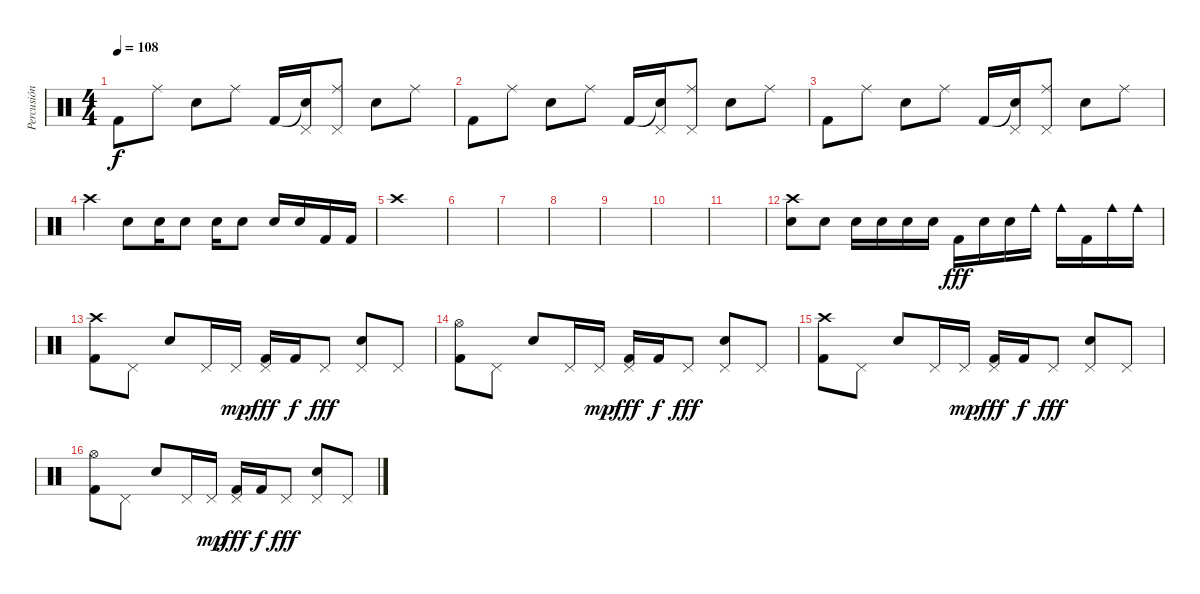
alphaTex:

\track ("Percusión" "Percusión") {instrument percussion}
\staff {score}
\articulation defaults
\ts (4 4)
\tempo 108
\clef neutral
\ks c "Kick (hit) 2".8{dy f} "Ride (middle)".8 "Snare (hit) 2".8 "Ride (middle)".8 "Kick (hit) 2".16
("Snare (hit)"{t} "Pedal Hi-Hat (hit)").16 ("Ride (middle)" "Pedal Hi-Hat (hit)").8 "Snare (hit) 2".8 "Ride (middle)".8 |
"Kick (hit) 2".8 "Ride (middle)".8 "Snare (hit) 2".8 "Ride (middle)".8 "Kick (hit) 2".16 ("Snare (hit)"{t} "Pedal Hi-Hat (hit)").16 ("Ride (middle)" "Pedal Hi-Hat (hit)").8 "Snare (hit) 2".8 "Ride (middle)".8 |
"Kick (hit) 2".8 "Ride (middle)".8 "Snare (hit) 2".8 "Ride (middle)".8 "Kick (hit) 2".16 ("Snare (hit)"{t} "Pedal Hi-Hat (hit)").16 ("Ride (middle)" "Pedal Hi-Hat (hit)").8 "Snare (hit) 2".8 "Ride (middle)".8 |
"Crash high (hit)".4 "Snare (hit) 2".8 "Snare (hit) 2".16 "Snare (hit) 2".8 "Snare (hit) 2".16 "Snare (hit) 2".8 "Snare (hit) 2".16 "Snare (hit) 2".16 "Kick (hit) 2".16 "Kick (hit) 2".16 |
"Crash high (hit)".1 |
|
|
|
|
|
|
("Crash high (hit)" "Snare (hit) 2").8 "Snare (hit) 2".8 "Snare (hit) 2".16 "Snare (hit) 2".16 "Snare (hit) 2".16 "Snare (hit) 2".16 "Kick (hit) 2".16{dy fff} "Snare (hit) 2".16 "Snare (hit) 2".16 "Cowbell medium (hit)".16 "Cowbell medium (hit)".16 "Kick (hit) 2".16 "Cowbell medium (hit)".16 "Cowbell medium (hit)".16 |
("Crash high (hit)" "Kick (hit) 2").8 "Pedal Hi-Hat (hit)".8 "Snare (hit) 2".8 "Pedal Hi-Hat (hit)".16 "Pedal Hi-Hat (hit)".16{dy mp} ("Pedal Hi-Hat (hit)" "Kick (hit) 2").16{dy fff} "Kick (hit) 2".16{dy f} "Pedal Hi-Hat (hit)".8{dy fff} ("Snare (hit) 2" "Pedal Hi-Hat (hit)").8 "Pedal Hi-Hat (hit)".8 |
("Hi-Hat (open)" "Kick (hit) 2").8 "Pedal Hi-Hat (hit)".8 "Snare (hit) 2".8 "Pedal Hi-Hat (hit)".16 "Pedal Hi-Hat (hit)".16{dy mp} ("Pedal Hi-Hat (hit)" "Kick (hit) 2").16{dy fff} "Kick (hit) 2".16{dy f} "Pedal Hi-Hat (hit)".8{dy fff} ("Snare (hit) 2" "Pedal Hi-Hat (hit)").8 "Pedal Hi-Hat (hit)".8 |
("Crash high (hit)" "Kick (hit) 2").8 "Pedal Hi-Hat (hit)".8 "Snare (hit) 2".8 "Pedal Hi-Hat (hit)".16 "Pedal Hi-Hat (hit)".16{dy mp} ("Pedal Hi-Hat (hit)" "Kick (hit) 2").16{dy fff} "Kick (hit) 2".16{dy f} "Pedal Hi-Hat (hit)".8{dy fff} ("Snare (hit) 2" "Pedal Hi-Hat (hit)").8 "Pedal Hi-Hat (hit)".8 |
("Hi-Hat (open)" "Kick (hit) 2").8 "Pedal Hi-Hat (hit)".8 "Snare (hit) 2".8 "Pedal Hi-Hat (hit)".16 "Pedal Hi-Hat (hit)".16{dy mp} ("Pedal Hi-Hat (hit)" "Kick (hit) 2").16{dy fff} "Kick (hit) 2".16{dy f} "Pedal Hi-Hat (hit)".8{dy fff} ("Snare (hit) 2" "Pedal Hi-Hat (hit)").8 "Pedal Hi-Hat (hit)".8
